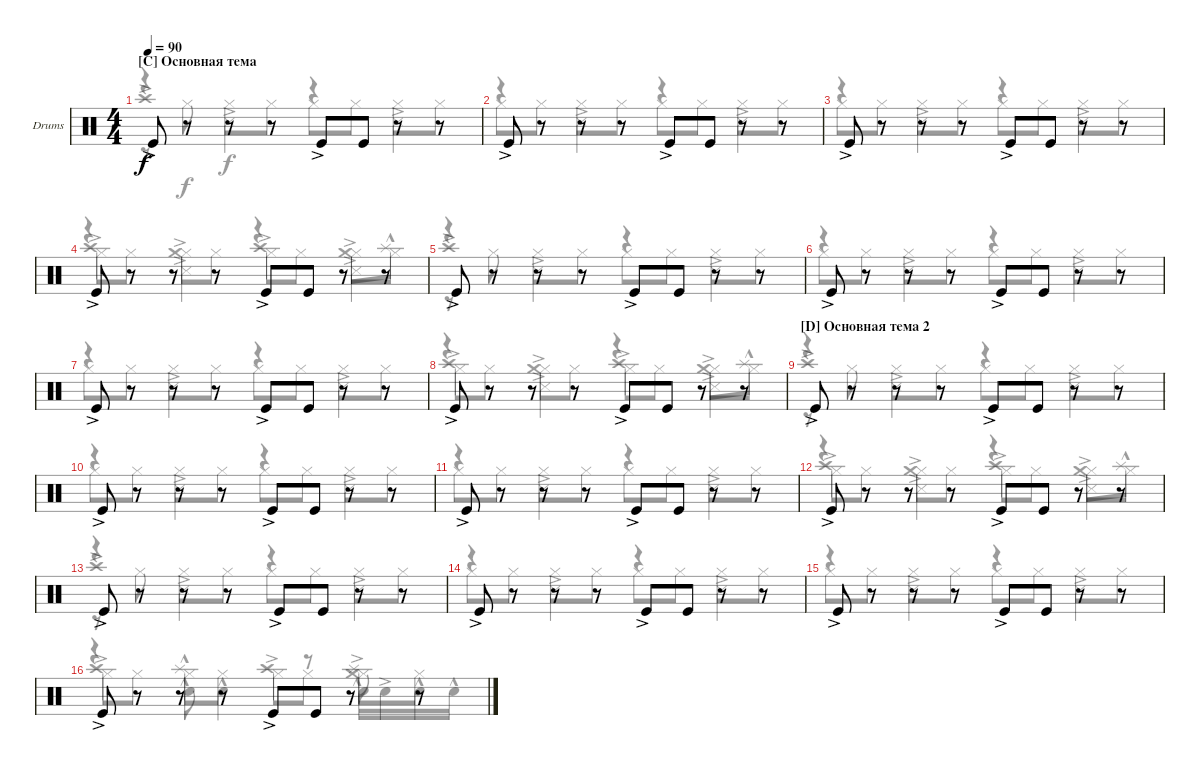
\defaultSystemsLayout 4
\bracketExtendMode groupsimilarinstruments
\firstSystemTrackNameOrientation horizontal
\otherSystemsTrackNameOrientation horizontal
\track ("Drumkit" "Drums") {instrument percussion}
\staff {score}
\articulation defaults
\voice
\ts (4 4)
\section ("C" "Основная тема")
\tempo 90
\clef neutral
\scale
0.333333
\ks c "Kick (hit)"{ac}.8{dy f}
r.8 r.8 r.8 "Kick (hit)"{ac}.8 "Kick (hit)".8 r.8 r.8 |
\scale
0.333333 "Kick (hit)"{ac}.8 r.8 r.8 r.8 "Kick (hit)"{ac}.8 "Kick (hit)".8 r.8 r.8 |
\scale
0.333333 "Kick (hit)"{ac}.8 r.8 r.8 r.8 "Kick (hit)"{ac}.8 "Kick (hit)".8 r.8 r.8 |
\scale
0.333333 "Kick (hit)"{ac}.8 r.8 r.8 r.8 "Kick (hit)"{ac}.8 "Kick (hit)".8 r.8 r.8 |
\scale
0.333333 "Kick (hit)"{ac}.8 r.8 r.8 r.8 "Kick (hit)"{ac}.8 "Kick (hit)".8 r.8 r.8 |
\scale
0.333333 "Kick (hit)"{ac}.8 r.8 r.8 r.8 "Kick (hit)"{ac}.8 "Kick (hit)".8 r.8 r.8 |
\scale
0.333333 "Kick (hit)"{ac}.8 r.8 r.8 r.8 "Kick (hit)"{ac}.8 "Kick (hit)".8 r.8 r.8 |
\scale
0.333333 "Kick (hit)"{ac}.8 r.8 r.8 r.8 "Kick (hit)"{ac}.8 "Kick (hit)".8 r.8 r.8 |
\section ("D" "Основная тема 2")
\scale
0.333333 "Kick (hit)"{ac}.8 r.8 r.8 r.8 "Kick (hit)"{ac}.8 "Kick (hit)".8 r.8 r.8 |
\scale
0.333333 "Kick (hit)"{ac}.8 r.8 r.8 r.8 "Kick (hit)"{ac}.8 "Kick (hit)".8 r.8 r.8 |
\scale
0.333333 "Kick (hit)"{ac}.8 r.8 r.8 r.8 "Kick (hit)"{ac}.8 "Kick (hit)".8 r.8 r.8 |
\scale
0.333333 "Kick (hit)"{ac}.8 r.8 r.8 r.8 "Kick (hit)"{ac}.8 "Kick (hit)".8 r.8 r.8 |
\scale
0.333333 "Kick (hit)"{ac}.8 r.8 r.8 r.8 "Kick (hit)"{ac}.8 "Kick (hit)".8 r.8 r.8 |
\scale
0.333333 "Kick (hit)"{ac}.8 r.8 r.8 r.8 "Kick (hit)"{ac}.8 "Kick (hit)".8 r.8 r.8 |
\scale
0.333333 "Kick (hit)"{ac}.8 r.8 r.8 r.8 "Kick (hit)"{ac}.8 "Kick (hit)".8 r.8 r.8 |
\scale
0.333333 "Kick (hit)"{ac}.8 r.8 r.8 r.8 "Kick (hit)"{ac}.8 "Kick (hit)".8 r.8 r.8
\voice
\clef neutral
\ottava regular
\simile none
\scale
0.333333
\ks c
r.4{dy f} "Snare (side stick) 3"{ac}.4 r.4 "Snare (side stick) 3"{ac}.4 |
\scale
0.333333 r.4 "Snare (side stick) 3"{ac}.4 r.4 "Snare (side stick) 3"{ac}.4 |
\scale
0.333333 r.4 "Snare (side stick) 3"{ac}.4 r.4 "Snare (side stick) 3"{ac}.4 |
\scale
0.333333 r.4 "Snare (side stick) 3"{ac}.4 r.4 "Snare (side stick) 3"{ac}.4 |
\scale
0.333333 r.4 "Snare (side stick) 3"{ac}.4 r.4 "Snare (side stick) 3"{ac}.4 |
\scale
0.333333 r.4 "Snare (side stick) 3"{ac}.4 r.4 "Snare (side stick) 3"{ac}.4 |
\scale
0.333333 r.4 "Snare (side stick) 3"{ac}.4 r.4 "Snare (side stick) 3"{ac}.4 |
\scale
0.333333 r.4 "Snare (side stick) 3"{ac}.4 r.4 "Snare (side stick) 3"{ac}.4 |
\scale
0.333333 r.4 "Snare (side stick) 3"{ac}.4 r.4 "Snare (side stick) 3"{ac}.4 |
\scale
0.333333 r.4 "Snare (side stick) 3"{ac}.4 r.4 "Snare (side stick) 3"{ac}.4 |
\scale
0.333333 r.4 "Snare (side stick) 3"{ac}.4 r.4 "Snare (side stick) 3"{ac}.4 |
\scale
0.333333 r.4 "Snare (side stick) 3"{ac}.4 r.4 "Snare (side stick) 3"{ac}.4 |
\scale
0.333333 r.4 "Snare (side stick) 3"{ac}.4 r.4 "Snare (side stick) 3"{ac}.4 |
\scale
0.333333 r.4 "Snare (side stick) 3"{ac}.4 r.4 "Snare (side stick) 3"{ac}.4 |
\scale
0.333333 r.4 "Snare (side stick) 3"{ac}.4 r.4 "Snare (side stick) 3"{ac}.4 |
\scale
0.333333 r.4 "Snare (hit) 2"{hac}.8 "Snare (hit) 2"{hac}.4 r.8 "Snare (hit) 2"{hac}.16 "Snare (hit) 2"{ac}.16 "Snare (hit) 2"{hac}.16 "Snare (hit) 2"{hac}.16
\voice
\clef neutral
\ottava regular
\simile none
\scale
0.333333
\ks c
r.8{dy f} "Hi-Hat (closed)".8 "Hi-Hat (closed)".8 "Hi-Hat (closed)".8 "Hi-Hat (closed)".8 "Hi-Hat (closed)".8 "Hi-Hat (closed)".8 "Hi-Hat (closed)".8 |
\scale
0.333333 "Hi-Hat (closed)".8 "Hi-Hat (closed)".8 "Hi-Hat (closed)".8 "Hi-Hat (closed)".8 "Hi-Hat (closed)".8 "Hi-Hat (closed)".8 "Hi-Hat (closed)".8 "Hi-Hat (closed)".8 |
\scale
0.333333 "Hi-Hat (closed)".8 "Hi-Hat (closed)".8 "Hi-Hat (closed)".8 "Hi-Hat (closed)".8 "Hi-Hat (closed)".8 "Hi-Hat (closed)".8 "Hi-Hat (closed)".8 "Hi-Hat (closed)".8 |
\scale
0.333333 "Hi-Hat (closed)".8 "Hi-Hat (closed)".8 "Hi-Hat (closed)".8 "Hi-Hat (closed)".8 "Hi-Hat (closed)".8 "Hi-Hat (closed)".8 "Hi-Hat (closed)".8 "Hi-Hat (closed)".8 |
\scale
0.333333 r.8 "Hi-Hat (closed)".8 "Hi-Hat (closed)".8 "Hi-Hat (closed)".8 "Hi-Hat (closed)".8 "Hi-Hat (closed)".8 "Hi-Hat (closed)".8 "Hi-Hat (closed)".8 |
\scale
0.333333 "Hi-Hat (closed)".8 "Hi-Hat (closed)".8 "Hi-Hat (closed)".8 "Hi-Hat (closed)".8 "Hi-Hat (closed)".8 "Hi-Hat (closed)".8 "Hi-Hat (closed)".8 "Hi-Hat (closed)".8 |
\scale
0.333333 "Hi-Hat (closed)".8 "Hi-Hat (closed)".8 "Hi-Hat (closed)".8 "Hi-Hat (closed)".8 "Hi-Hat (closed)".8 "Hi-Hat (closed)".8 "Hi-Hat (closed)".8 "Hi-Hat (closed)".8 |
\scale
0.333333 "Hi-Hat (closed)".8 "Hi-Hat (closed)".8 "Hi-Hat (closed)".8 "Hi-Hat (closed)".8 "Hi-Hat (closed)".8 "Hi-Hat (closed)".8 "Hi-Hat (closed)".8 "Hi-Hat (closed)".8 |
\scale
0.333333 r.8 "Hi-Hat (closed)".8 "Hi-Hat (closed)".8 "Hi-Hat (closed)".8 "Hi-Hat (closed)".8 "Hi-Hat (closed)".8 "Hi-Hat (closed)".8 "Hi-Hat (closed)".8 |
\scale
0.333333 "Hi-Hat (closed)".8 "Hi-Hat (closed)".8 "Hi-Hat (closed)".8 "Hi-Hat (closed)".8 "Hi-Hat (closed)".8 "Hi-Hat (closed)".8 "Hi-Hat (closed)".8 "Hi-Hat (closed)".8 |
\scale
0.333333 "Hi-Hat (closed)".8 "Hi-Hat (closed)".8 "Hi-Hat (closed)".8 "Hi-Hat (closed)".8 "Hi-Hat (closed)".8 "Hi-Hat (closed)".8 "Hi-Hat (closed)".8 "Hi-Hat (closed)".8 |
\scale
0.333333 "Hi-Hat (closed)".8 "Hi-Hat (closed)".8 "Hi-Hat (closed)".8 "Hi-Hat (closed)".8 "Hi-Hat (closed)".8 "Hi-Hat (closed)".8 "Hi-Hat (closed)".8 "Hi-Hat (closed)".8 |
\scale
0.333333 r.8 "Hi-Hat (closed)".8 "Hi-Hat (closed)".8 "Hi-Hat (closed)".8 "Hi-Hat (closed)".8 "Hi-Hat (closed)".8 "Hi-Hat (closed)".8 "Hi-Hat (closed)".8 |
\scale
0.333333 "Hi-Hat (closed)".8 "Hi-Hat (closed)".8 "Hi-Hat (closed)".8 "Hi-Hat (closed)".8 "Hi-Hat (closed)".8 "Hi-Hat (closed)".8 "Hi-Hat (closed)".8 "Hi-Hat (closed)".8 |
\scale
0.333333 "Hi-Hat (closed)".8 "Hi-Hat (closed)".8 "Hi-Hat (closed)".8 "Hi-Hat (closed)".8 "Hi-Hat (closed)".8 "Hi-Hat (closed)".8 "Hi-Hat (closed)".8 "Hi-Hat (closed)".8 |
\scale
0.333333 "Hi-Hat (closed)".8 "Hi-Hat (closed)".8 "Hi-Hat (closed)".8 "Hi-Hat (closed)".8 "Hi-Hat (closed)".8 "Hi-Hat (closed)".8 "Hi-Hat (closed)".8 "Hi-Hat (closed)".8
\voice
\clef neutral
\ottava regular
\simile none
\scale
0.333333
\ks c "Crash high (hit)"{ac}.1{dy f}
|
\scale
0.333333 |
\scale
0.333333 |
\scale
0.333333 "Crash high (hit)"{ac}.4 "Crash medium (hit)"{ac}.4 "Crash high (hit)"{ac}.4 "Crash medium (hit)"{ac}.8 "Splash (hit)"{hac}.8 |
\scale
0.333333 "Crash high (hit)"{ac}.1 |
\scale
0.333333 |
\scale
0.333333 |
\scale
0.333333 "Crash high (hit)"{ac}.4 "Crash medium (hit)"{ac}.4 "Crash high (hit)"{ac}.4 "Crash medium (hit)"{ac}.8 "Splash (hit)"{hac}.8 |
\scale
0.333333 "Crash high (hit)"{ac}.1 |
\scale
0.333333 |
\scale
0.333333 |
\scale
0.333333 "Crash high (hit)"{ac}.4 "Crash medium (hit)"{ac}.4 "Crash high (hit)"{ac}.4 "Crash medium (hit)"{ac}.8 "Splash (hit)"{hac}.8 |
\scale
0.333333 "Crash high (hit)"{ac}.1 |
\scale
0.333333 |
\scale
0.333333 |
\scale
0.333333 "Crash high (hit)"{ac}.4 "Splash (hit)"{hac}.4 "Crash high (hit)"{ac}.4 ("Crash medium (hit)"{ac} "Splash (hit)").8 r.8
